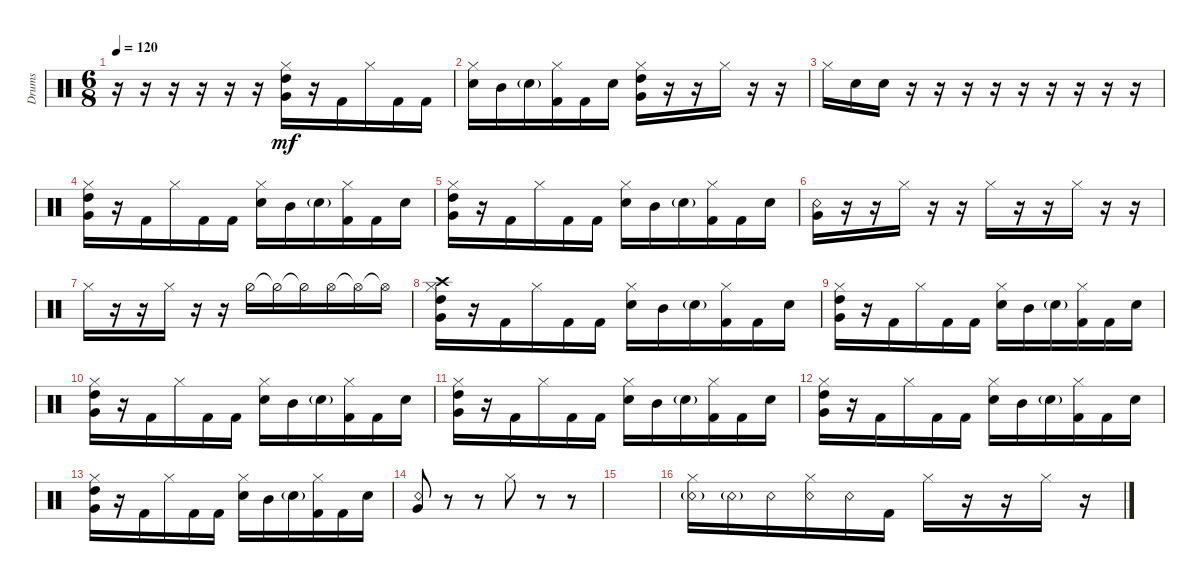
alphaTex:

\defaultSystemsLayout 4
\bracketExtendMode groupsimilarinstruments
\otherSystemsTrackNameOrientation horizontal
\track ("Drumkit" "Drums") {instrument percussion}
\staff {score}
\articulation defaults
\ts (6 8)
\tempo 120
\clef neutral
\ks c
r.16{dy mf} r.16 r.16 r.16 r.16 r.16 ("Very Low Tom (hit)" "Hi-Hat (closed)" "High Tom (hit)").16 r.16 "Kick (hit) 2".16 "Hi-Hat (closed)".16 "Kick (hit) 2".16 "Kick (hit) 2".16 |
("Snare (hit) 2" "Hi-Hat (closed)").16 "Mid Tom (hit)".16 "Snare (hit) 2"{g}.16 ("Kick (hit) 2" "Hi-Hat (closed)").16 "Kick (hit) 2".16 "Snare (hit) 2".16 ("Very Low Tom (hit)" "Hi-Hat (closed)" "High Tom (hit)").16 r.16 r.16 "Hi-Hat (closed)".16 r.16 r.16 |
"Hi-Hat (closed)".16 "Snare (hit) 2".16 "Snare (hit) 2".16 r.16 r.16 r.16 r.16 r.16 r.16 r.16 r.16 r.16 |
("Very Low Tom (hit)" "Hi-Hat (closed)" "High Tom (hit)").16 r.16 "Kick (hit) 2".16 "Hi-Hat (closed)".16 "Kick (hit) 2".16 "Kick (hit) 2".16 ("Snare (hit) 2" "Hi-Hat (closed)").16 "Mid Tom (hit)".16 "Snare (hit) 2"{g}.16 ("Kick (hit) 2" "Hi-Hat (closed)").16 "Kick (hit) 2".16 "Snare (hit) 2".16 |
("Very Low Tom (hit)" "Hi-Hat (closed)" "High Tom (hit)").16 r.16 "Kick (hit) 2".16 "Hi-Hat (closed)".16 "Kick (hit) 2".16 "Kick (hit) 2".16 ("Snare (hit) 2" "Hi-Hat (closed)").16 "Mid Tom (hit)".16 "Snare (hit) 2"{g}.16 ("Kick (hit) 2" "Hi-Hat (closed)").16 "Kick (hit) 2".16 "Snare (hit) 2".16 |
("Very Low Tom (hit)" "Snare (rim shot)").16 r.16 r.16 "Hi-Hat (closed)".16 r.16 r.16 "Hi-Hat (closed)".16 r.16 r.16 "Hi-Hat (closed)".16 r.16 r.16 |
"Hi-Hat (closed)".16 r.16 r.16 "Hi-Hat (closed)".16 r.16 r.16 "Hi-Hat (half)".16 "Hi-Hat (half)"{t}.16 "Hi-Hat (half)"{t}.16 "Hi-Hat (open)".16 "Hi-Hat (open)"{t}.16 "Hi-Hat (open)"{t}.16 |
("Very Low Tom (hit)" "Hi-Hat (closed)" "High Tom (hit)" "Crash high (hit)").16 r.16 "Kick (hit) 2".16 "Hi-Hat (closed)".16 "Kick (hit) 2".16 "Kick (hit) 2".16 ("Snare (hit) 2" "Hi-Hat (closed)").16 "Mid Tom (hit)".16 "Snare (hit) 2"{g}.16 ("Kick (hit) 2" "Hi-Hat (closed)").16 "Kick (hit) 2".16 "Snare (hit) 2".16 |
("Very Low Tom (hit)" "Hi-Hat (closed)" "High Tom (hit)").16 r.16 "Kick (hit) 2".16 "Hi-Hat (closed)".16 "Kick (hit) 2".16 "Kick (hit) 2".16 ("Snare (hit) 2" "Hi-Hat (closed)").16 "Mid Tom (hit)".16 "Snare (hit) 2"{g}.16 ("Kick (hit) 2" "Hi-Hat (closed)").16 "Kick (hit) 2".16 "Snare (hit) 2".16 |
("Very Low Tom (hit)" "Hi-Hat (closed)" "High Tom (hit)").16 r.16 "Kick (hit) 2".16 "Hi-Hat (closed)".16 "Kick (hit) 2".16 "Kick (hit) 2".16 ("Snare (hit) 2" "Hi-Hat (closed)").16 "Mid Tom (hit)".16 "Snare (hit) 2"{g}.16 ("Kick (hit) 2" "Hi-Hat (closed)").16 "Kick (hit) 2".16 "Snare (hit) 2".16 |
("Very Low Tom (hit)" "Hi-Hat (closed)" "High Tom (hit)").16 r.16 "Kick (hit) 2".16 "Hi-Hat (closed)".16 "Kick (hit) 2".16 "Kick (hit) 2".16 ("Snare (hit) 2" "Hi-Hat (closed)").16 "Mid Tom (hit)".16 "Snare (hit) 2"{g}.16 ("Kick (hit) 2" "Hi-Hat (closed)").16 "Kick (hit) 2".16 "Snare (hit) 2".16 |
("Very Low Tom (hit)" "Hi-Hat (closed)" "High Tom (hit)").16 r.16 "Kick (hit) 2".16 "Hi-Hat (closed)".16 "Kick (hit) 2".16 "Kick (hit) 2".16 ("Snare (hit) 2" "Hi-Hat (closed)").16 "Mid Tom (hit)".16 "Snare (hit) 2"{g}.16 ("Kick (hit) 2" "Hi-Hat (closed)").16 "Kick (hit) 2".16 "Snare (hit) 2".16 |
("Very Low Tom (hit)" "Hi-Hat (closed)" "High Tom (hit)").16 r.16 "Kick (hit) 2".16 "Hi-Hat (closed)".16 "Kick (hit) 2".16 "Kick (hit) 2".16 ("Snare (hit) 2" "Hi-Hat (closed)").16 "Mid Tom (hit)".16 "Snare (hit) 2"{g}.16 ("Kick (hit) 2" "Hi-Hat (closed)").16 "Kick (hit) 2".16 "Snare (hit) 2".16 |
("Very Low Tom (hit)" "Snare (rim shot)").8 r.8 r.8 "Hi-Hat (closed)".8 r.8 r.8 |
|
("Snare (rim shot)"{g} "Hi-Hat (closed)").16 "Snare (rim shot)"{g}.16 "Snare (rim shot)".16 ("Snare (rim shot)" "Hi-Hat (closed)").16 "Snare (rim shot)".16 "Kick (hit) 2".16 "Hi-Hat (closed)".16 r.16 r.16 "Hi-Hat (closed)".16 r.16
